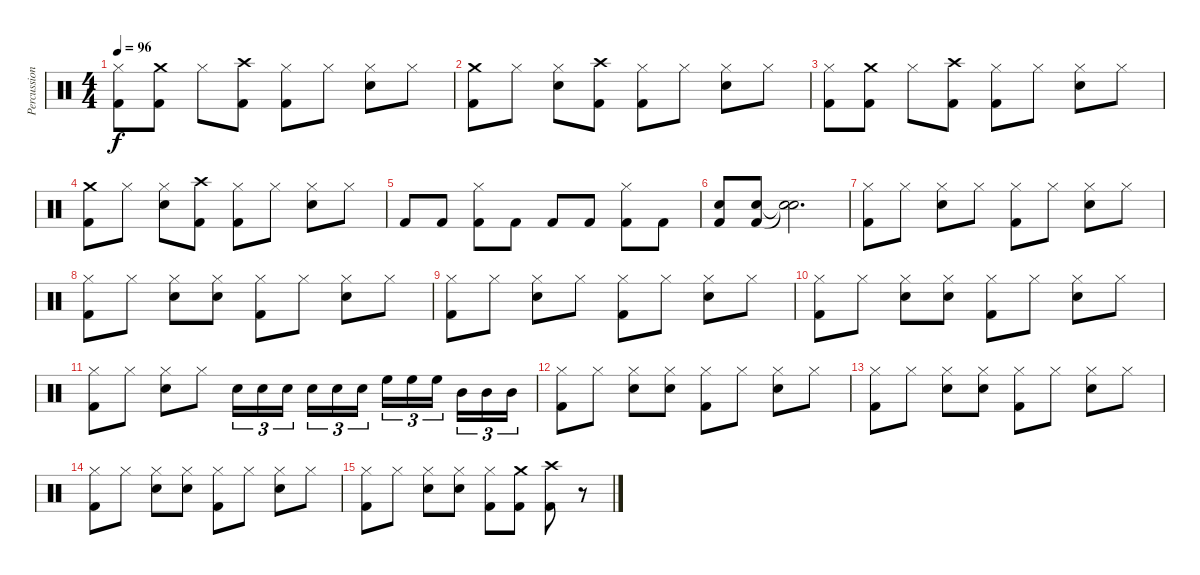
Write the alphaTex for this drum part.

\track ("Percussion" "Percussion") {instrument percussion}
\staff {score}
\articulation defaults
\ts (4 4)
\tempo 96
\clef neutral
\ks c
("Kick (hit) 2" "Hi-Hat (closed)").8{dy f} ("Crash medium (hit)" "Kick (hit) 2").8 "Hi-Hat (closed)".8 ("Crash high (hit)" "Kick (hit) 2").8 ("Hi-Hat (closed)" "Kick (hit) 2").8 "Hi-Hat (closed)".8 ("Hi-Hat (closed)" "Snare (hit) 2").8 "Hi-Hat (closed)".8 |
("Crash medium (hit)" "Kick (hit) 2").8 "Hi-Hat (closed)".8 ("Hi-Hat (closed)" "Snare (hit) 2").8 ("Crash high (hit)" "Kick (hit) 2").8 ("Hi-Hat (closed)" "Kick (hit) 2").8 "Hi-Hat (closed)".8 ("Hi-Hat (closed)" "Snare (hit) 2").8 "Hi-Hat (closed)".8 |
("Kick (hit) 2" "Hi-Hat (closed)").8 ("Crash medium (hit)" "Kick (hit) 2").8 "Hi-Hat (closed)".8 ("Crash high (hit)" "Kick (hit) 2").8 ("Hi-Hat (closed)" "Kick (hit) 2").8 "Hi-Hat (closed)".8 ("Hi-Hat (closed)" "Snare (hit) 2").8 "Hi-Hat (closed)".8 |
("Crash medium (hit)" "Kick (hit) 2").8 "Hi-Hat (closed)".8 ("Hi-Hat (closed)" "Snare (hit) 2").8 ("Crash high (hit)" "Kick (hit) 2").8 ("Hi-Hat (closed)" "Kick (hit) 2").8 "Hi-Hat (closed)".8 ("Hi-Hat (closed)" "Snare (hit) 2").8 "Hi-Hat (closed)".8 |
"Kick (hit) 2".8 "Kick (hit) 2".8 ("Hi-Hat (closed)" "Kick (hit) 2").8 "Kick (hit) 2".8 "Kick (hit) 2".8 "Kick (hit) 2".8 ("Hi-Hat (closed)" "Kick (hit) 2").8 "Kick (hit) 2".8 |
("Snare (hit) 2" "Kick (hit) 2").8 ("Kick (hit) 2" "Snare (hit) 2").8 ("Snare (hit)"{t} "Snare (hit)"{t}).2{d} |
("Hi-Hat (closed)" "Kick (hit) 2").8 "Hi-Hat (closed)".8 ("Hi-Hat (closed)" "Snare (hit) 2").8 "Hi-Hat (closed)".8 ("Hi-Hat (closed)" "Kick (hit) 2").8 "Hi-Hat (closed)".8 ("Hi-Hat (closed)" "Snare (hit) 2").8 "Hi-Hat (closed)".8 |
("Hi-Hat (closed)" "Kick (hit) 2").8 "Hi-Hat (closed)".8 ("Hi-Hat (closed)" "Snare (hit) 2").8 ("Hi-Hat (closed)" "Snare (hit) 2").8 ("Hi-Hat (closed)" "Kick (hit) 2").8 "Hi-Hat (closed)".8 ("Hi-Hat (closed)" "Snare (hit) 2").8 "Hi-Hat (closed)".8 |
("Hi-Hat (closed)" "Kick (hit) 2").8 "Hi-Hat (closed)".8 ("Hi-Hat (closed)" "Snare (hit) 2").8 "Hi-Hat (closed)".8 ("Hi-Hat (closed)" "Kick (hit) 2").8 "Hi-Hat (closed)".8 ("Hi-Hat (closed)" "Snare (hit) 2").8 "Hi-Hat (closed)".8 |
("Hi-Hat (closed)" "Kick (hit) 2").8 "Hi-Hat (closed)".8 ("Hi-Hat (closed)" "Snare (hit) 2").8 ("Hi-Hat (closed)" "Snare (hit) 2").8 ("Hi-Hat (closed)" "Kick (hit) 2").8 "Hi-Hat (closed)".8 ("Hi-Hat (closed)" "Snare (hit) 2").8 "Hi-Hat (closed)".8 |
("Hi-Hat (closed)" "Kick (hit) 2").8 "Hi-Hat (closed)".8 ("Hi-Hat (closed)" "Snare (hit) 2").8 "Hi-Hat (closed)".8 "Snare (hit) 2".16{tu (3 2)} "Snare (hit) 2".16{tu (3 2)} "Snare (hit) 2".16{tu (3 2)} "Snare (hit) 2".16{tu (3 2)} "Snare (hit) 2".16{tu (3 2)} "Snare (hit) 2".16{tu (3 2)} "High Floor Tom (hit)".16{tu (3 2)} "High Floor Tom (hit)".16{tu (3 2)} "High Floor Tom (hit)".16{tu (3 2)} "Mid Tom (hit)".16{tu (3 2)} "Mid Tom (hit)".16{tu (3 2)} "Mid Tom (hit)".16{tu (3 2)} |
("Hi-Hat (closed)" "Kick (hit) 2").8 "Hi-Hat (closed)".8 ("Hi-Hat (closed)" "Snare (hit) 2").8 ("Hi-Hat (closed)" "Snare (hit) 2").8 ("Hi-Hat (closed)" "Kick (hit) 2").8 "Hi-Hat (closed)".8 ("Hi-Hat (closed)" "Snare (hit) 2").8 "Hi-Hat (closed)".8 |
("Hi-Hat (closed)" "Kick (hit) 2").8 "Hi-Hat (closed)".8 ("Hi-Hat (closed)" "Snare (hit) 2").8 ("Hi-Hat (closed)" "Snare (hit) 2").8 ("Hi-Hat (closed)" "Kick (hit) 2").8 "Hi-Hat (closed)".8 ("Hi-Hat (closed)" "Snare (hit) 2").8 "Hi-Hat (closed)".8 |
("Hi-Hat (closed)" "Kick (hit) 2").8 "Hi-Hat (closed)".8 ("Hi-Hat (closed)" "Snare (hit) 2").8 ("Hi-Hat (closed)" "Snare (hit) 2").8 ("Hi-Hat (closed)" "Kick (hit) 2").8 "Hi-Hat (closed)".8 ("Hi-Hat (closed)" "Snare (hit) 2").8 "Hi-Hat (closed)".8 |
("Hi-Hat (closed)" "Kick (hit) 2").8 "Hi-Hat (closed)".8 ("Hi-Hat (closed)" "Snare (hit) 2").8 ("Hi-Hat (closed)" "Snare (hit) 2").8 ("Hi-Hat (closed)" "Kick (hit) 2").8 ("Crash medium (hit)" "Kick (hit) 2").8 ("Crash high (hit)" "Kick (hit) 2").8 r.8
